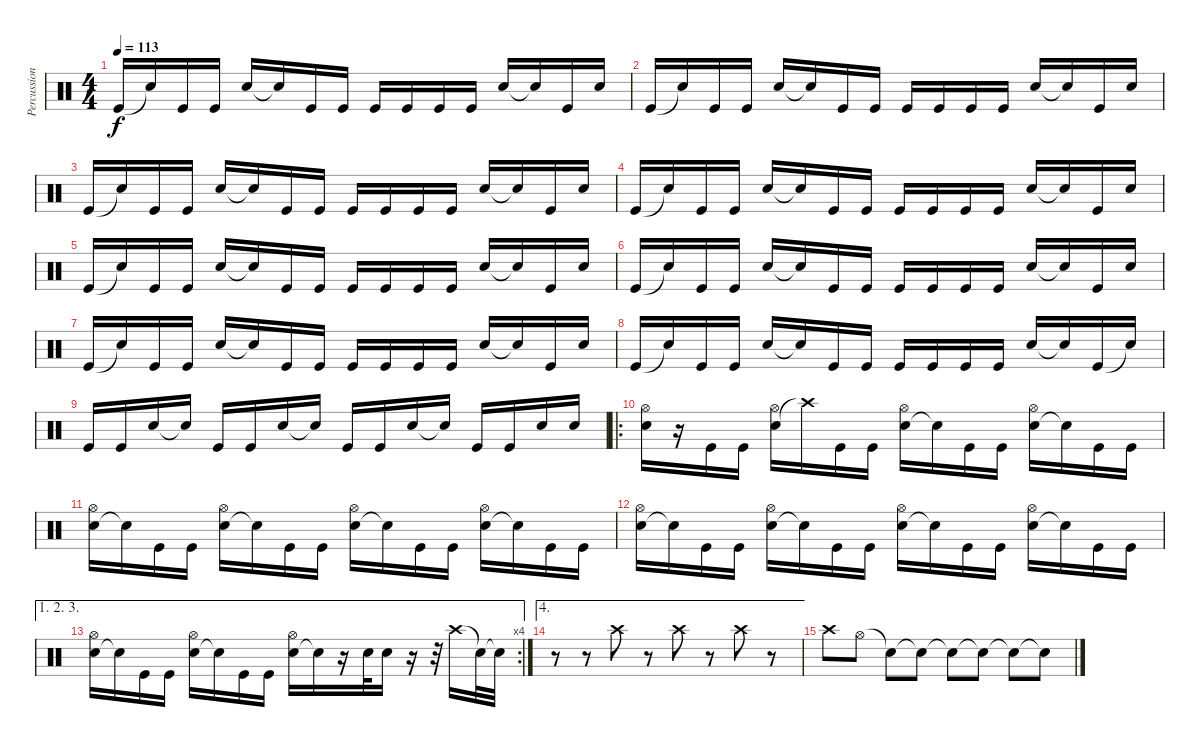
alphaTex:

\track ("Percussions" "Percussion") {instrument percussion}
\staff {score}
\articulation defaults
\ts (4 4)
\tempo 113
\clef neutral
\ks c "Kick (hit)".16{dy f} "Snare (hit)"{t}.16 "Kick (hit)".16 "Kick (hit)".16 "Snare (hit) 2".16 "Snare (hit)"{t}.16 "Kick (hit)".16 "Kick (hit)".16 "Kick (hit)".16 "Kick (hit)".16 "Kick (hit)".16 "Kick (hit)".16 "Snare (hit) 2".16 "Snare (hit)"{t}.16 "Kick (hit)".16 "Snare (hit) 2".16
|
"Kick (hit)".16 "Snare (hit)"{t}.16 "Kick (hit)".16 "Kick (hit)".16 "Snare (hit) 2".16 "Snare (hit)"{t}.16 "Kick (hit)".16 "Kick (hit)".16 "Kick (hit)".16 "Kick (hit)".16 "Kick (hit)".16 "Kick (hit)".16 "Snare (hit) 2".16 "Snare (hit)"{t}.16 "Kick (hit)".16 "Snare (hit) 2".16 |
"Kick (hit)".16 "Snare (hit)"{t}.16 "Kick (hit)".16 "Kick (hit)".16 "Snare (hit) 2".16 "Snare (hit)"{t}.16 "Kick (hit)".16 "Kick (hit)".16 "Kick (hit)".16 "Kick (hit)".16 "Kick (hit)".16 "Kick (hit)".16 "Snare (hit) 2".16 "Snare (hit)"{t}.16 "Kick (hit)".16 "Snare (hit) 2".16 |
"Kick (hit)".16 "Snare (hit)"{t}.16 "Kick (hit)".16 "Kick (hit)".16 "Snare (hit) 2".16 "Snare (hit)"{t}.16 "Kick (hit)".16 "Kick (hit)".16 "Kick (hit)".16 "Kick (hit)".16 "Kick (hit)".16 "Kick (hit)".16 "Snare (hit) 2".16 "Snare (hit)"{t}.16 "Kick (hit)".16 "Snare (hit) 2".16 |
"Kick (hit)".16 "Snare (hit)"{t}.16 "Kick (hit)".16 "Kick (hit)".16 "Snare (hit) 2".16 "Snare (hit)"{t}.16 "Kick (hit)".16 "Kick (hit)".16 "Kick (hit)".16 "Kick (hit)".16 "Kick (hit)".16 "Kick (hit)".16 "Snare (hit) 2".16 "Snare (hit)"{t}.16 "Kick (hit)".16 "Snare (hit) 2".16 |
"Kick (hit)".16 "Snare (hit)"{t}.16 "Kick (hit)".16 "Kick (hit)".16 "Snare (hit) 2".16 "Snare (hit)"{t}.16 "Kick (hit)".16 "Kick (hit)".16 "Kick (hit)".16 "Kick (hit)".16 "Kick (hit)".16 "Kick (hit)".16 "Snare (hit) 2".16 "Snare (hit)"{t}.16 "Kick (hit)".16 "Snare (hit) 2".16 |
"Kick (hit)".16 "Snare (hit)"{t}.16 "Kick (hit)".16 "Kick (hit)".16 "Snare (hit) 2".16 "Snare (hit)"{t}.16 "Kick (hit)".16 "Kick (hit)".16 "Kick (hit)".16 "Kick (hit)".16 "Kick (hit)".16 "Kick (hit)".16 "Snare (hit) 2".16 "Snare (hit)"{t}.16 "Kick (hit)".16 "Snare (hit) 2".16 |
"Kick (hit)".16 "Snare (hit)"{t}.16 "Kick (hit)".16 "Kick (hit)".16 "Snare (hit) 2".16 "Snare (hit)"{t}.16 "Kick (hit)".16 "Kick (hit)".16 "Kick (hit)".16 "Kick (hit)".16 "Kick (hit)".16 "Kick (hit)".16 "Snare (hit) 2".16 "Snare (hit)"{t}.16 "Kick (hit)".16 "Snare (hit)"{t}.16 |
"Kick (hit)".16 "Kick (hit)".16 "Snare (hit) 2".16 "Snare (hit) 2"{t}.16 "Kick (hit)".16 "Kick (hit)".16 "Snare (hit) 2".16 "Snare (hit) 2"{t}.16 "Kick (hit)".16 "Kick (hit)".16 "Snare (hit) 2".16 "Snare (hit) 2"{t}.16 "Kick (hit)".16 "Kick (hit)".16 "Snare (hit) 2".16 "Snare (hit) 2".16 |
\ro
("Electric Snare (hit)" "Hi-Hat (open)").16 r.16 "Kick (hit)".16 "Kick (hit)".16 ("Electric Snare (hit)" "Hi-Hat (open)").16 "Crash high (hit)"{t}.16 "Kick (hit)".16 "Kick (hit)".16 ("Electric Snare (hit)" "Hi-Hat (open)").16 "Snare (hit)"{t}.16 "Kick (hit)".16 "Kick (hit)".16 ("Electric Snare (hit)" "Hi-Hat (open)").16 "Snare (hit)"{t}.16 "Kick (hit)".16 "Kick (hit)".16 |
("Electric Snare (hit)" "Hi-Hat (open)").16 "Snare (hit)"{t}.16 "Kick (hit)".16 "Kick (hit)".16 ("Electric Snare (hit)" "Hi-Hat (open)").16 "Snare (hit)"{t}.16 "Kick (hit)".16 "Kick (hit)".16 ("Electric Snare (hit)" "Hi-Hat (open)").16 "Snare (hit)"{t}.16 "Kick (hit)".16 "Kick (hit)".16 ("Electric Snare (hit)" "Hi-Hat (open)").16 "Snare (hit)"{t}.16 "Kick (hit)".16 "Kick (hit)".16 |
("Electric Snare (hit)" "Hi-Hat (open)").16 "Snare (hit)"{t}.16 "Kick (hit)".16 "Kick (hit)".16 ("Electric Snare (hit)" "Hi-Hat (open)").16 "Snare (hit)"{t}.16 "Kick (hit)".16 "Kick (hit)".16 ("Electric Snare (hit)" "Hi-Hat (open)").16 "Snare (hit)"{t}.16 "Kick (hit)".16 "Kick (hit)".16 ("Electric Snare (hit)" "Hi-Hat (open)").16 "Snare (hit)"{t}.16 "Kick (hit)".16 "Kick (hit)".16 |
\ae (1 2 3)
\rc 4
("Electric Snare (hit)" "Hi-Hat (open)").16 "Snare (hit)"{t}.16 "Kick (hit)".16 "Kick (hit)".16 ("Electric Snare (hit)" "Hi-Hat (open)").16 "Snare (hit)"{t}.16 "Kick (hit)".16 "Kick (hit)".16 ("Electric Snare (hit)" "Hi-Hat (open)").16 "Snare (hit)"{t}.16 r.16 "Snare (hit) 2".32 "Snare (hit) 2".16 r.16 r.32 "Crash high (hit)".16 "Snare (hit)"{t}.32 "Snare (hit)"{t}.32 |
\ae 4
r.8 r.8 "Crash high (hit)".8 r.8 "Crash high (hit)".8 r.8 "Crash high (hit)".8 r.8 |
"Crash high (hit)".8 "Hi-Hat (open)".8 "Snare (hit)"{t}.8 "Snare (hit)"{t}.8 "Snare (hit)"{t}.8 "Snare (hit)"{t}.8 "Snare (hit)"{t}.8 "Snare (hit)"{t}.8
